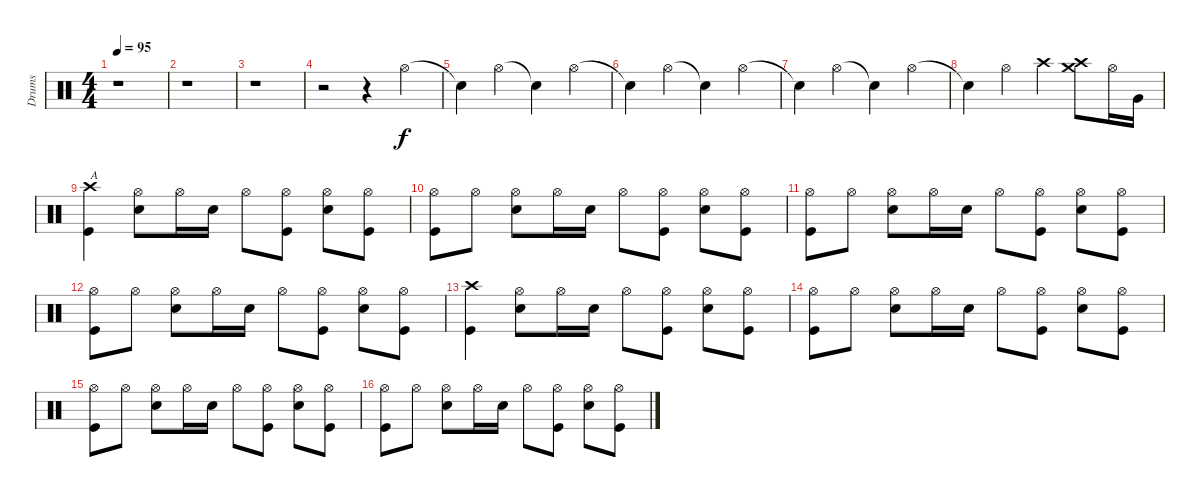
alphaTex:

\track ("Drums" "Drums") {instrument percussion}
\staff {score}
\articulation defaults
\ts (4 4)
\tempo 95
\clef neutral
\ks c
r.1{dy f} |
r.1 |
r.1 |
r.2 r.4 "Hi-Hat (open)".4 |
"Snare (hit)"{t}.4 "Hi-Hat (open)".4 "Snare (hit)"{t}.4 "Hi-Hat (open)".4 |
"Snare (hit)"{t}.4 "Hi-Hat (open)".4 "Snare (hit)"{t}.4 "Hi-Hat (open)".4 |
"Snare (hit)"{t}.4 "Hi-Hat (open)".4 "Snare (hit)"{t}.4 "Hi-Hat (open)".4 |
"Snare (hit)"{t}.4 "Hi-Hat (open)".4 "Crash high (hit)".4 ("Crash high (hit)" "Crash medium (hit)").8 "Hi-Hat (open)".16 "Very Low Tom (hit)".16 |
("Crash high (hit)" "Kick (hit)").4{txt "A"} ("Hi-Hat (open)" "Electric Snare (hit)").8 "Hi-Hat (open)".16 "Electric Snare (hit)".16 "Hi-Hat (open)".8 ("Hi-Hat (open)" "Kick (hit)").8 ("Hi-Hat (open)" "Electric Snare (hit)").8 ("Hi-Hat (open)" "Kick (hit)").8 |
("Hi-Hat (open)" "Kick (hit)").8 "Hi-Hat (open)".8 ("Hi-Hat (open)" "Electric Snare (hit)").8 "Hi-Hat (open)".16 "Electric Snare (hit)".16 "Hi-Hat (open)".8 ("Hi-Hat (open)" "Kick (hit)").8 ("Hi-Hat (open)" "Electric Snare (hit)").8 ("Hi-Hat (open)" "Kick (hit)").8 |
("Hi-Hat (open)" "Kick (hit)").8 "Hi-Hat (open)".8 ("Hi-Hat (open)" "Electric Snare (hit)").8 "Hi-Hat (open)".16 "Electric Snare (hit)".16 "Hi-Hat (open)".8 ("Hi-Hat (open)" "Kick (hit)").8 ("Hi-Hat (open)" "Electric Snare (hit)").8 ("Hi-Hat (open)" "Kick (hit)").8 |
("Hi-Hat (open)" "Kick (hit)").8 "Hi-Hat (open)".8 ("Hi-Hat (open)" "Electric Snare (hit)").8 "Hi-Hat (open)".16 "Electric Snare (hit)".16 "Hi-Hat (open)".8 ("Hi-Hat (open)" "Kick (hit)").8 ("Hi-Hat (open)" "Electric Snare (hit)").8 ("Hi-Hat (open)" "Kick (hit)").8 |
("Crash high (hit)" "Kick (hit)").4 ("Hi-Hat (open)" "Electric Snare (hit)").8 "Hi-Hat (open)".16 "Electric Snare (hit)".16 "Hi-Hat (open)".8 ("Hi-Hat (open)" "Kick (hit)").8 ("Hi-Hat (open)" "Electric Snare (hit)").8 ("Hi-Hat (open)" "Kick (hit)").8 |
("Hi-Hat (open)" "Kick (hit)").8 "Hi-Hat (open)".8 ("Hi-Hat (open)" "Electric Snare (hit)").8 "Hi-Hat (open)".16 "Electric Snare (hit)".16 "Hi-Hat (open)".8 ("Hi-Hat (open)" "Kick (hit)").8 ("Hi-Hat (open)" "Electric Snare (hit)").8 ("Hi-Hat (open)" "Kick (hit)").8 |
("Hi-Hat (open)" "Kick (hit)").8 "Hi-Hat (open)".8 ("Hi-Hat (open)" "Electric Snare (hit)").8 "Hi-Hat (open)".16 "Electric Snare (hit)".16 "Hi-Hat (open)".8 ("Hi-Hat (open)" "Kick (hit)").8 ("Hi-Hat (open)" "Electric Snare (hit)").8 ("Hi-Hat (open)" "Kick (hit)").8 |
("Hi-Hat (open)" "Kick (hit)").8 "Hi-Hat (open)".8 ("Hi-Hat (open)" "Electric Snare (hit)").8 "Hi-Hat (open)".16 "Electric Snare (hit)".16 "Hi-Hat (open)".8 ("Hi-Hat (open)" "Kick (hit)").8 ("Hi-Hat (open)" "Electric Snare (hit)").8 ("Hi-Hat (open)" "Kick (hit)").8
